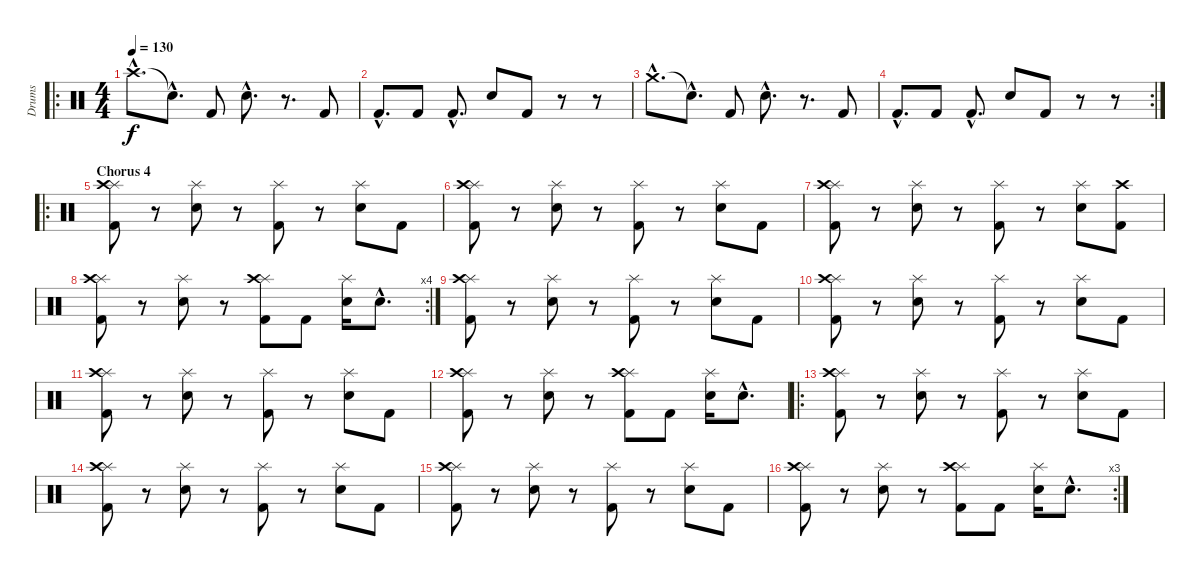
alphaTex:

\track ("Drums" "Drums") {instrument percussion}
\staff {score}
\articulation defaults
\ro
\ts (4 4)
\tempo 130
\clef neutral
\ks c "Crash high (hit)"{hac}.8{d dy f} "Snare (hit)"{hac t}.8{d} "Kick (hit) 2".8 "Electric Snare (hit)"{hac}.8{d}
r.8{d} "Kick (hit) 2".8 |
"Kick (hit) 2"{hac}.8{d} "Kick (hit) 2".8 "Kick (hit) 2"{hac}.8{d} "Electric Snare (hit)".8 "Kick (hit) 2".8 r.8 r.8 |
"Crash medium (hit)"{hac}.8{d} "Snare (hit)"{hac t}.8{d} "Kick (hit) 2".8 "Electric Snare (hit)"{hac}.8{d} r.8{d} "Kick (hit) 2".8 |
\rc 2 "Kick (hit) 2"{hac}.8{d} "Kick (hit) 2".8 "Kick (hit) 2"{hac}.8{d} "Electric Snare (hit)".8 "Kick (hit) 2".8
r.8 r.8 |
\ro
\section ("" "Chorus 4")
("Kick (hit) 2" "Splash (hit)" "Crash high (hit)").8{volume 14} r.8 ("Electric Snare (hit)" "Splash (hit)").8 r.8 ("Kick (hit) 2" "Splash (hit)").8 r.8 ("Electric Snare (hit)" "Splash (hit)").8 "Kick (hit) 2".8 |
("Kick (hit) 2" "Splash (hit)" "Crash high (hit)").8 r.8 ("Electric Snare (hit)" "Splash (hit)").8 r.8 ("Kick (hit) 2" "Splash (hit)").8 r.8 ("Electric Snare (hit)" "Splash (hit)").8 "Kick (hit) 2".8 |
("Kick (hit) 2" "Splash (hit)" "Crash high (hit)").8 r.8 ("Electric Snare (hit)" "Splash (hit)").8 r.8 ("Kick (hit) 2" "Splash (hit)").8 r.8 ("Electric Snare (hit)" "Splash (hit)").8 ("Kick (hit) 2" "Crash high (hit)").8 |
\rc 4
("Kick (hit) 2" "Splash (hit)" "Crash high (hit)").8 r.8 ("Electric Snare (hit)" "Splash (hit)").8 r.8 ("Kick (hit) 2" "Splash (hit)" "Crash high (hit)").8 "Kick (hit) 2".8 ("Electric Snare (hit)" "Splash (hit)").16 "Electric Snare (hit)"{hac}.8{d} |
("Kick (hit) 2" "Splash (hit)" "Crash high (hit)").8{volume 14} r.8 ("Electric Snare (hit)" "Splash (hit)").8 r.8 ("Kick (hit) 2" "Splash (hit)").8 r.8 ("Electric Snare (hit)" "Splash (hit)").8 "Kick (hit) 2".8 |
("Kick (hit) 2" "Splash (hit)" "Crash high (hit)").8 r.8 ("Electric Snare (hit)" "Splash (hit)").8 r.8 ("Kick (hit) 2" "Splash (hit)").8 r.8 ("Electric Snare (hit)" "Splash (hit)").8 "Kick (hit) 2".8 |
("Kick (hit) 2" "Splash (hit)" "Crash high (hit)").8 r.8 ("Electric Snare (hit)" "Splash (hit)").8 r.8 ("Kick (hit) 2" "Splash (hit)").8 r.8 ("Electric Snare (hit)" "Splash (hit)").8 "Kick (hit) 2".8 |
("Kick (hit) 2" "Splash (hit)" "Crash high (hit)").8 r.8 ("Electric Snare (hit)" "Splash (hit)").8 r.8 ("Kick (hit) 2" "Splash (hit)" "Crash high (hit)").8 "Kick (hit) 2".8 ("Electric Snare (hit)" "Splash (hit)").16 "Electric Snare (hit)"{hac}.8{d} |
\ro
("Kick (hit) 2" "Splash (hit)" "Crash high (hit)").8{volume 14} r.8 ("Electric Snare (hit)" "Splash (hit)").8 r.8 ("Kick (hit) 2" "Splash (hit)").8 r.8 ("Electric Snare (hit)" "Splash (hit)").8 "Kick (hit) 2".8 |
("Kick (hit) 2" "Splash (hit)" "Crash high (hit)").8 r.8 ("Electric Snare (hit)" "Splash (hit)").8 r.8 ("Kick (hit) 2" "Splash (hit)").8 r.8 ("Electric Snare (hit)" "Splash (hit)").8 "Kick (hit) 2".8 |
("Kick (hit) 2" "Splash (hit)" "Crash high (hit)").8 r.8 ("Electric Snare (hit)" "Splash (hit)").8 r.8 ("Kick (hit) 2" "Splash (hit)").8 r.8 ("Electric Snare (hit)" "Splash (hit)").8 "Kick (hit) 2".8 |
\rc 3
("Kick (hit) 2" "Splash (hit)" "Crash high (hit)").8 r.8 ("Electric Snare (hit)" "Splash (hit)").8 r.8 ("Kick (hit) 2" "Splash (hit)" "Crash high (hit)").8 "Kick (hit) 2".8 ("Electric Snare (hit)" "Splash (hit)").16 "Electric Snare (hit)"{hac}.8{d}
